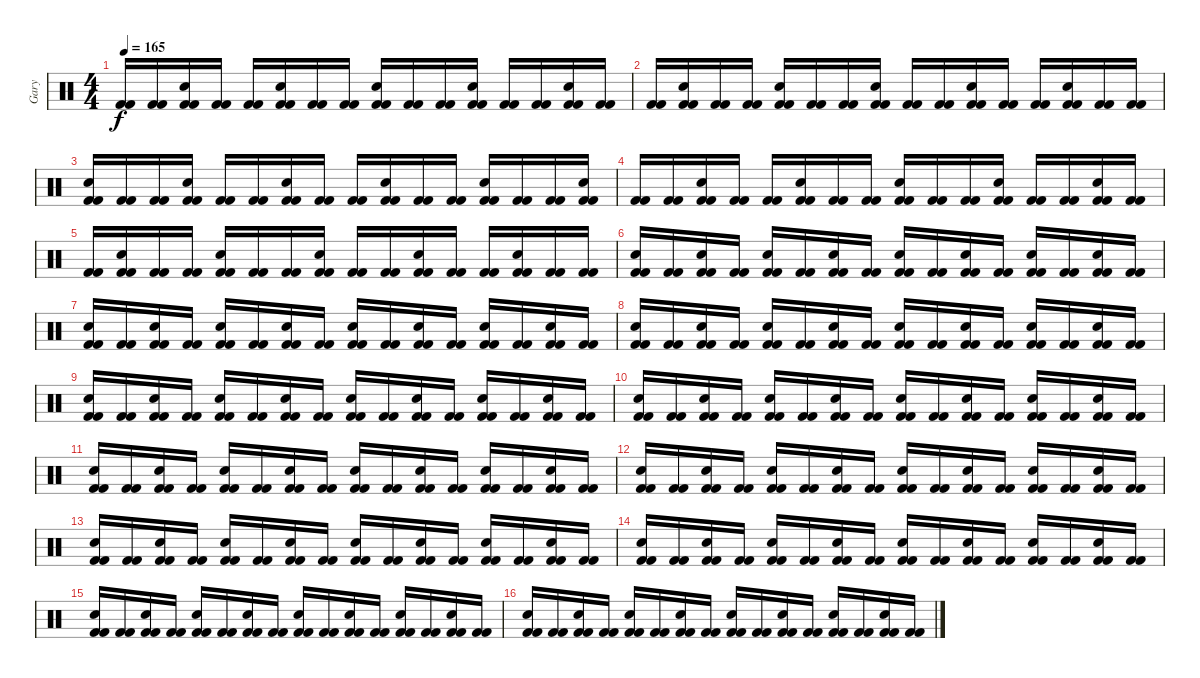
\track ("Gary" "Gary") {instrument percussion}
\staff {score}
\articulation defaults
\ts (4 4)
\tempo 165
\clef neutral
\ks c
("Kick (hit) 2" "Kick (hit) 2").16{dy f} ("Kick (hit) 2" "Kick (hit) 2").16 ("Kick (hit) 2" "Snare (hit) 2" "Kick (hit) 2").16 ("Kick (hit) 2" "Kick (hit) 2").16 ("Kick (hit) 2" "Kick (hit) 2").16 ("Kick (hit) 2" "Snare (hit) 2" "Kick (hit) 2").16 ("Kick (hit) 2" "Kick (hit) 2").16 ("Kick (hit) 2" "Kick (hit) 2").16 ("Kick (hit) 2" "Snare (hit) 2" "Kick (hit) 2").16 ("Kick (hit) 2" "Kick (hit) 2").16 ("Kick (hit) 2" "Kick (hit) 2").16 ("Kick (hit) 2" "Snare (hit) 2" "Kick (hit) 2").16 ("Kick (hit) 2" "Kick (hit) 2").16 ("Kick (hit) 2" "Kick (hit) 2").16 ("Kick (hit) 2" "Snare (hit) 2" "Kick (hit) 2").16 ("Kick (hit) 2" "Kick (hit) 2").16 |
("Kick (hit) 2" "Kick (hit) 2").16 ("Kick (hit) 2" "Snare (hit) 2" "Kick (hit) 2").16 ("Kick (hit) 2" "Kick (hit) 2").16 ("Kick (hit) 2" "Kick (hit) 2").16 ("Kick (hit) 2" "Snare (hit) 2" "Kick (hit) 2").16 ("Kick (hit) 2" "Kick (hit) 2").16 ("Kick (hit) 2" "Kick (hit) 2").16 ("Kick (hit) 2" "Snare (hit) 2" "Kick (hit) 2").16 ("Kick (hit) 2" "Kick (hit) 2").16 ("Kick (hit) 2" "Kick (hit) 2").16 ("Kick (hit) 2" "Snare (hit) 2" "Kick (hit) 2").16 ("Kick (hit) 2" "Kick (hit) 2").16 ("Kick (hit) 2" "Kick (hit) 2").16 ("Kick (hit) 2" "Snare (hit) 2" "Kick (hit) 2").16 ("Kick (hit) 2" "Kick (hit) 2").16 ("Kick (hit) 2" "Kick (hit) 2").16 |
("Kick (hit) 2" "Snare (hit) 2" "Kick (hit) 2").16 ("Kick (hit) 2" "Kick (hit) 2").16 ("Kick (hit) 2" "Kick (hit) 2").16 ("Kick (hit) 2" "Snare (hit) 2" "Kick (hit) 2").16 ("Kick (hit) 2" "Kick (hit) 2").16 ("Kick (hit) 2" "Kick (hit) 2").16 ("Kick (hit) 2" "Snare (hit) 2" "Kick (hit) 2").16 ("Kick (hit) 2" "Kick (hit) 2").16 ("Kick (hit) 2" "Kick (hit) 2").16 ("Kick (hit) 2" "Snare (hit) 2" "Kick (hit) 2").16 ("Kick (hit) 2" "Kick (hit) 2").16 ("Kick (hit) 2" "Kick (hit) 2").16 ("Kick (hit) 2" "Snare (hit) 2" "Kick (hit) 2").16 ("Kick (hit) 2" "Kick (hit) 2").16 ("Kick (hit) 2" "Kick (hit) 2").16 ("Kick (hit) 2" "Snare (hit) 2" "Kick (hit) 2").16 |
("Kick (hit) 2" "Kick (hit) 2").16 ("Kick (hit) 2" "Kick (hit) 2").16 ("Kick (hit) 2" "Snare (hit) 2" "Kick (hit) 2").16 ("Kick (hit) 2" "Kick (hit) 2").16 ("Kick (hit) 2" "Kick (hit) 2").16 ("Kick (hit) 2" "Snare (hit) 2" "Kick (hit) 2").16 ("Kick (hit) 2" "Kick (hit) 2").16 ("Kick (hit) 2" "Kick (hit) 2").16 ("Kick (hit) 2" "Snare (hit) 2" "Kick (hit) 2").16 ("Kick (hit) 2" "Kick (hit) 2").16 ("Kick (hit) 2" "Kick (hit) 2").16 ("Kick (hit) 2" "Snare (hit) 2" "Kick (hit) 2").16 ("Kick (hit) 2" "Kick (hit) 2").16 ("Kick (hit) 2" "Kick (hit) 2").16 ("Kick (hit) 2" "Snare (hit) 2" "Kick (hit) 2").16 ("Kick (hit) 2" "Kick (hit) 2").16 |
("Kick (hit) 2" "Kick (hit) 2").16 ("Kick (hit) 2" "Snare (hit) 2" "Kick (hit) 2").16 ("Kick (hit) 2" "Kick (hit) 2").16 ("Kick (hit) 2" "Kick (hit) 2").16 ("Kick (hit) 2" "Snare (hit) 2" "Kick (hit) 2").16 ("Kick (hit) 2" "Kick (hit) 2").16 ("Kick (hit) 2" "Kick (hit) 2").16 ("Kick (hit) 2" "Snare (hit) 2" "Kick (hit) 2").16 ("Kick (hit) 2" "Kick (hit) 2").16 ("Kick (hit) 2" "Kick (hit) 2").16 ("Kick (hit) 2" "Snare (hit) 2" "Kick (hit) 2").16 ("Kick (hit) 2" "Kick (hit) 2").16 ("Kick (hit) 2" "Kick (hit) 2").16 ("Kick (hit) 2" "Snare (hit) 2" "Kick (hit) 2").16 ("Kick (hit) 2" "Kick (hit) 2").16 ("Kick (hit) 2" "Kick (hit) 2").16 |
("Kick (hit) 2" "Snare (hit) 2" "Kick (hit) 2").16 ("Kick (hit) 2" "Kick (hit) 2").16 ("Kick (hit) 2" "Snare (hit) 2" "Kick (hit) 2").16 ("Kick (hit) 2" "Kick (hit) 2").16 ("Kick (hit) 2" "Snare (hit) 2" "Kick (hit) 2").16 ("Kick (hit) 2" "Kick (hit) 2").16 ("Kick (hit) 2" "Snare (hit) 2" "Kick (hit) 2").16 ("Kick (hit) 2" "Kick (hit) 2").16 ("Kick (hit) 2" "Snare (hit) 2" "Kick (hit) 2").16 ("Kick (hit) 2" "Kick (hit) 2").16 ("Kick (hit) 2" "Snare (hit) 2" "Kick (hit) 2").16 ("Kick (hit) 2" "Kick (hit) 2").16 ("Kick (hit) 2" "Snare (hit) 2" "Kick (hit) 2").16 ("Kick (hit) 2" "Kick (hit) 2").16 ("Kick (hit) 2" "Snare (hit) 2" "Kick (hit) 2").16 ("Kick (hit) 2" "Kick (hit) 2").16 |
("Kick (hit) 2" "Snare (hit) 2" "Kick (hit) 2").16 ("Kick (hit) 2" "Kick (hit) 2").16 ("Kick (hit) 2" "Snare (hit) 2" "Kick (hit) 2").16 ("Kick (hit) 2" "Kick (hit) 2").16 ("Kick (hit) 2" "Snare (hit) 2" "Kick (hit) 2").16 ("Kick (hit) 2" "Kick (hit) 2").16 ("Kick (hit) 2" "Snare (hit) 2" "Kick (hit) 2").16 ("Kick (hit) 2" "Kick (hit) 2").16 ("Kick (hit) 2" "Snare (hit) 2" "Kick (hit) 2").16 ("Kick (hit) 2" "Kick (hit) 2").16 ("Kick (hit) 2" "Snare (hit) 2" "Kick (hit) 2").16 ("Kick (hit) 2" "Kick (hit) 2").16 ("Kick (hit) 2" "Snare (hit) 2" "Kick (hit) 2").16 ("Kick (hit) 2" "Kick (hit) 2").16 ("Kick (hit) 2" "Snare (hit) 2" "Kick (hit) 2").16 ("Kick (hit) 2" "Kick (hit) 2").16 |
("Kick (hit) 2" "Snare (hit) 2" "Kick (hit) 2").16 ("Kick (hit) 2" "Kick (hit) 2").16 ("Kick (hit) 2" "Snare (hit) 2" "Kick (hit) 2").16 ("Kick (hit) 2" "Kick (hit) 2").16 ("Kick (hit) 2" "Snare (hit) 2" "Kick (hit) 2").16 ("Kick (hit) 2" "Kick (hit) 2").16 ("Kick (hit) 2" "Snare (hit) 2" "Kick (hit) 2").16 ("Kick (hit) 2" "Kick (hit) 2").16 ("Kick (hit) 2" "Snare (hit) 2" "Kick (hit) 2").16 ("Kick (hit) 2" "Kick (hit) 2").16 ("Kick (hit) 2" "Snare (hit) 2" "Kick (hit) 2").16 ("Kick (hit) 2" "Kick (hit) 2").16 ("Kick (hit) 2" "Snare (hit) 2" "Kick (hit) 2").16 ("Kick (hit) 2" "Kick (hit) 2").16 ("Kick (hit) 2" "Snare (hit) 2" "Kick (hit) 2").16 ("Kick (hit) 2" "Kick (hit) 2").16 |
("Kick (hit) 2" "Snare (hit) 2" "Kick (hit) 2").16 ("Kick (hit) 2" "Kick (hit) 2").16 ("Kick (hit) 2" "Snare (hit) 2" "Kick (hit) 2").16 ("Kick (hit) 2" "Kick (hit) 2").16 ("Kick (hit) 2" "Snare (hit) 2" "Kick (hit) 2").16 ("Kick (hit) 2" "Kick (hit) 2").16 ("Kick (hit) 2" "Snare (hit) 2" "Kick (hit) 2").16 ("Kick (hit) 2" "Kick (hit) 2").16 ("Kick (hit) 2" "Snare (hit) 2" "Kick (hit) 2").16 ("Kick (hit) 2" "Kick (hit) 2").16 ("Kick (hit) 2" "Snare (hit) 2" "Kick (hit) 2").16 ("Kick (hit) 2" "Kick (hit) 2").16 ("Kick (hit) 2" "Snare (hit) 2" "Kick (hit) 2").16 ("Kick (hit) 2" "Kick (hit) 2").16 ("Kick (hit) 2" "Snare (hit) 2" "Kick (hit) 2").16 ("Kick (hit) 2" "Kick (hit) 2").16 |
("Kick (hit) 2" "Snare (hit) 2" "Kick (hit) 2").16 ("Kick (hit) 2" "Kick (hit) 2").16 ("Kick (hit) 2" "Snare (hit) 2" "Kick (hit) 2").16 ("Kick (hit) 2" "Kick (hit) 2").16 ("Kick (hit) 2" "Snare (hit) 2" "Kick (hit) 2").16 ("Kick (hit) 2" "Kick (hit) 2").16 ("Kick (hit) 2" "Snare (hit) 2" "Kick (hit) 2").16 ("Kick (hit) 2" "Kick (hit) 2").16 ("Kick (hit) 2" "Snare (hit) 2" "Kick (hit) 2").16 ("Kick (hit) 2" "Kick (hit) 2").16 ("Kick (hit) 2" "Snare (hit) 2" "Kick (hit) 2").16 ("Kick (hit) 2" "Kick (hit) 2").16 ("Kick (hit) 2" "Snare (hit) 2" "Kick (hit) 2").16 ("Kick (hit) 2" "Kick (hit) 2").16 ("Kick (hit) 2" "Snare (hit) 2" "Kick (hit) 2").16 ("Kick (hit) 2" "Kick (hit) 2").16 |
("Kick (hit) 2" "Snare (hit) 2" "Kick (hit) 2").16 ("Kick (hit) 2" "Kick (hit) 2").16 ("Kick (hit) 2" "Snare (hit) 2" "Kick (hit) 2").16 ("Kick (hit) 2" "Kick (hit) 2").16 ("Kick (hit) 2" "Snare (hit) 2" "Kick (hit) 2").16 ("Kick (hit) 2" "Kick (hit) 2").16 ("Kick (hit) 2" "Snare (hit) 2" "Kick (hit) 2").16 ("Kick (hit) 2" "Kick (hit) 2").16 ("Kick (hit) 2" "Snare (hit) 2" "Kick (hit) 2").16 ("Kick (hit) 2" "Kick (hit) 2").16 ("Kick (hit) 2" "Snare (hit) 2" "Kick (hit) 2").16 ("Kick (hit) 2" "Kick (hit) 2").16 ("Kick (hit) 2" "Snare (hit) 2" "Kick (hit) 2").16 ("Kick (hit) 2" "Kick (hit) 2").16 ("Kick (hit) 2" "Snare (hit) 2" "Kick (hit) 2").16 ("Kick (hit) 2" "Kick (hit) 2").16 |
("Kick (hit) 2" "Snare (hit) 2" "Kick (hit) 2").16 ("Kick (hit) 2" "Kick (hit) 2").16 ("Kick (hit) 2" "Snare (hit) 2" "Kick (hit) 2").16 ("Kick (hit) 2" "Kick (hit) 2").16 ("Kick (hit) 2" "Snare (hit) 2" "Kick (hit) 2").16 ("Kick (hit) 2" "Kick (hit) 2").16 ("Kick (hit) 2" "Snare (hit) 2" "Kick (hit) 2").16 ("Kick (hit) 2" "Kick (hit) 2").16 ("Kick (hit) 2" "Snare (hit) 2" "Kick (hit) 2").16 ("Kick (hit) 2" "Kick (hit) 2").16 ("Kick (hit) 2" "Snare (hit) 2" "Kick (hit) 2").16 ("Kick (hit) 2" "Kick (hit) 2").16 ("Kick (hit) 2" "Snare (hit) 2" "Kick (hit) 2").16 ("Kick (hit) 2" "Kick (hit) 2").16 ("Kick (hit) 2" "Snare (hit) 2" "Kick (hit) 2").16 ("Kick (hit) 2" "Kick (hit) 2").16 |
("Kick (hit) 2" "Snare (hit) 2" "Kick (hit) 2").16 ("Kick (hit) 2" "Kick (hit) 2").16 ("Kick (hit) 2" "Snare (hit) 2" "Kick (hit) 2").16 ("Kick (hit) 2" "Kick (hit) 2").16 ("Kick (hit) 2" "Snare (hit) 2" "Kick (hit) 2").16 ("Kick (hit) 2" "Kick (hit) 2").16 ("Kick (hit) 2" "Snare (hit) 2" "Kick (hit) 2").16 ("Kick (hit) 2" "Kick (hit) 2").16 ("Kick (hit) 2" "Snare (hit) 2" "Kick (hit) 2").16 ("Kick (hit) 2" "Kick (hit) 2").16 ("Kick (hit) 2" "Snare (hit) 2" "Kick (hit) 2").16 ("Kick (hit) 2" "Kick (hit) 2").16 ("Kick (hit) 2" "Snare (hit) 2" "Kick (hit) 2").16 ("Kick (hit) 2" "Kick (hit) 2").16 ("Kick (hit) 2" "Snare (hit) 2" "Kick (hit) 2").16 ("Kick (hit) 2" "Kick (hit) 2").16 |
("Kick (hit) 2" "Snare (hit) 2" "Kick (hit) 2").16 ("Kick (hit) 2" "Kick (hit) 2").16 ("Kick (hit) 2" "Snare (hit) 2" "Kick (hit) 2").16 ("Kick (hit) 2" "Kick (hit) 2").16 ("Kick (hit) 2" "Snare (hit) 2" "Kick (hit) 2").16 ("Kick (hit) 2" "Kick (hit) 2").16 ("Kick (hit) 2" "Snare (hit) 2" "Kick (hit) 2").16 ("Kick (hit) 2" "Kick (hit) 2").16 ("Kick (hit) 2" "Snare (hit) 2" "Kick (hit) 2").16 ("Kick (hit) 2" "Kick (hit) 2").16 ("Kick (hit) 2" "Snare (hit) 2" "Kick (hit) 2").16 ("Kick (hit) 2" "Kick (hit) 2").16 ("Kick (hit) 2" "Snare (hit) 2" "Kick (hit) 2").16 ("Kick (hit) 2" "Kick (hit) 2").16 ("Kick (hit) 2" "Snare (hit) 2" "Kick (hit) 2").16 ("Kick (hit) 2" "Kick (hit) 2").16 |
("Kick (hit) 2" "Snare (hit) 2" "Kick (hit) 2").16 ("Kick (hit) 2" "Kick (hit) 2").16 ("Kick (hit) 2" "Snare (hit) 2" "Kick (hit) 2").16 ("Kick (hit) 2" "Kick (hit) 2").16 ("Kick (hit) 2" "Snare (hit) 2" "Kick (hit) 2").16 ("Kick (hit) 2" "Kick (hit) 2").16 ("Kick (hit) 2" "Snare (hit) 2" "Kick (hit) 2").16 ("Kick (hit) 2" "Kick (hit) 2").16 ("Kick (hit) 2" "Snare (hit) 2" "Kick (hit) 2").16 ("Kick (hit) 2" "Kick (hit) 2").16 ("Kick (hit) 2" "Snare (hit) 2" "Kick (hit) 2").16 ("Kick (hit) 2" "Kick (hit) 2").16 ("Kick (hit) 2" "Snare (hit) 2" "Kick (hit) 2").16 ("Kick (hit) 2" "Kick (hit) 2").16 ("Kick (hit) 2" "Snare (hit) 2" "Kick (hit) 2").16 ("Kick (hit) 2" "Kick (hit) 2").16 |
("Kick (hit) 2" "Snare (hit) 2" "Kick (hit) 2").16 ("Kick (hit) 2" "Kick (hit) 2").16 ("Kick (hit) 2" "Snare (hit) 2" "Kick (hit) 2").16 ("Kick (hit) 2" "Kick (hit) 2").16 ("Kick (hit) 2" "Snare (hit) 2" "Kick (hit) 2").16 ("Kick (hit) 2" "Kick (hit) 2").16 ("Kick (hit) 2" "Snare (hit) 2" "Kick (hit) 2").16 ("Kick (hit) 2" "Kick (hit) 2").16 ("Kick (hit) 2" "Snare (hit) 2" "Kick (hit) 2").16 ("Kick (hit) 2" "Kick (hit) 2").16 ("Kick (hit) 2" "Snare (hit) 2" "Kick (hit) 2").16 ("Kick (hit) 2" "Kick (hit) 2").16 ("Kick (hit) 2" "Snare (hit) 2" "Kick (hit) 2").16 ("Kick (hit) 2" "Kick (hit) 2").16 ("Kick (hit) 2" "Snare (hit) 2" "Kick (hit) 2").16 ("Kick (hit) 2" "Kick (hit) 2").16
